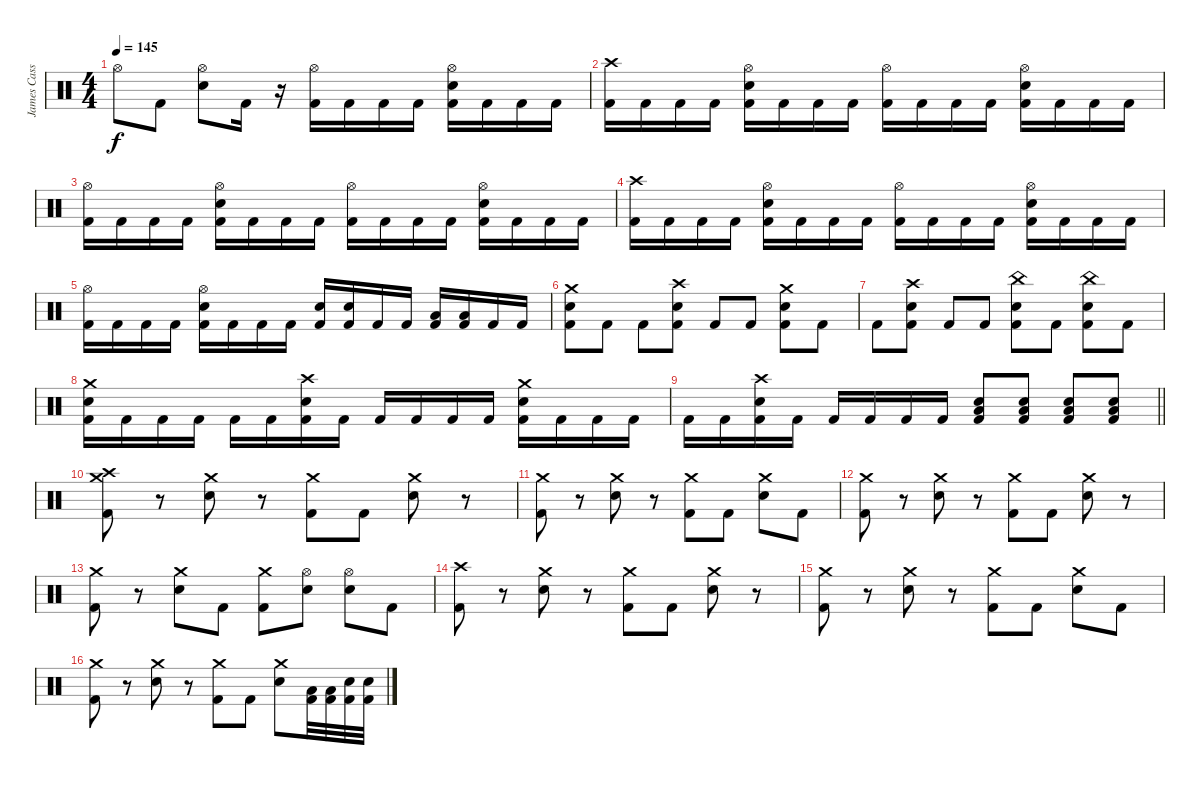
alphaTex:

\track ("James Cassells" "James Cass") {instrument percussion}
\staff {score}
\articulation defaults
\ts (4 4)
\tempo 145
\clef neutral
\ks c "Hi-Hat (open)".8{dy f} "Kick (hit) 2".8
("Hi-Hat (open)" "Electric Snare (hit)").8 "Kick (hit) 2".16 r.16 ("Hi-Hat (open)" "Kick (hit) 2").16 "Kick (hit) 2".16 "Kick (hit) 2".16 "Kick (hit) 2".16 ("Hi-Hat (open)" "Electric Snare (hit)" "Kick (hit) 2").16 "Kick (hit) 2".16 "Kick (hit) 2".16 "Kick (hit) 2".16 |
("Crash high (hit)" "Kick (hit) 2").16 "Kick (hit) 2".16 "Kick (hit) 2".16 "Kick (hit) 2".16 ("Hi-Hat (open)" "Electric Snare (hit)" "Kick (hit) 2").16 "Kick (hit) 2".16 "Kick (hit) 2".16 "Kick (hit) 2".16 ("Hi-Hat (open)" "Kick (hit) 2").16 "Kick (hit) 2".16 "Kick (hit) 2".16 "Kick (hit) 2".16 ("Hi-Hat (open)" "Electric Snare (hit)" "Kick (hit) 2").16 "Kick (hit) 2".16 "Kick (hit) 2".16 "Kick (hit) 2".16 |
("Hi-Hat (open)" "Kick (hit) 2").16 "Kick (hit) 2".16 "Kick (hit) 2".16 "Kick (hit) 2".16 ("Hi-Hat (open)" "Electric Snare (hit)" "Kick (hit) 2").16 "Kick (hit) 2".16 "Kick (hit) 2".16 "Kick (hit) 2".16 ("Hi-Hat (open)" "Kick (hit) 2").16 "Kick (hit) 2".16 "Kick (hit) 2".16 "Kick (hit) 2".16 ("Hi-Hat (open)" "Electric Snare (hit)" "Kick (hit) 2").16 "Kick (hit) 2".16 "Kick (hit) 2".16 "Kick (hit) 2".16 |
("Crash high (hit)" "Kick (hit) 2").16 "Kick (hit) 2".16 "Kick (hit) 2".16 "Kick (hit) 2".16 ("Hi-Hat (open)" "Electric Snare (hit)" "Kick (hit) 2").16 "Kick (hit) 2".16 "Kick (hit) 2".16 "Kick (hit) 2".16 ("Hi-Hat (open)" "Kick (hit) 2").16 "Kick (hit) 2".16 "Kick (hit) 2".16 "Kick (hit) 2".16 ("Hi-Hat (open)" "Electric Snare (hit)" "Kick (hit) 2").16 "Kick (hit) 2".16 "Kick (hit) 2".16 "Kick (hit) 2".16 |
("Hi-Hat (open)" "Kick (hit) 2").16 "Kick (hit) 2".16 "Kick (hit) 2".16 "Kick (hit) 2".16 ("Hi-Hat (open)" "Electric Snare (hit)" "Kick (hit) 2").16 "Kick (hit) 2".16 "Kick (hit) 2".16 "Kick (hit) 2".16 ("Electric Snare (hit)" "Kick (hit) 2").16 ("Electric Snare (hit)" "Kick (hit) 2").16 "Kick (hit) 2".16 "Kick (hit) 2".16 ("Low Floor Tom (hit)" "Kick (hit) 2").16 ("Low Floor Tom (hit)" "Kick (hit) 2").16 "Kick (hit) 2".16 "Kick (hit) 2".16 |
("Crash medium (hit)" "Electric Snare (hit)" "Kick (hit) 2").8 "Kick (hit) 2".8 "Kick (hit) 2".8 ("Crash high (hit)" "Electric Snare (hit)" "Kick (hit) 2").8 "Kick (hit) 2".8 "Kick (hit) 2".8 ("Crash medium (hit)" "Electric Snare (hit)" "Kick (hit) 2").8 "Kick (hit) 2".8 |
"Kick (hit) 2".8 ("Crash high (hit)" "Electric Snare (hit)" "Kick (hit) 2").8 "Kick (hit) 2".8 "Kick (hit) 2".8 ("China (hit)" "Electric Snare (hit)" "Kick (hit) 2").8 "Kick (hit) 2".8 ("China (hit)" "Electric Snare (hit)" "Kick (hit) 2").8 "Kick (hit) 2".8 |
("Crash medium (hit)" "Electric Snare (hit)" "Kick (hit) 2").16 "Kick (hit) 2".16 "Kick (hit) 2".16 "Kick (hit) 2".16 "Kick (hit) 2".16 "Kick (hit) 2".16 ("Crash high (hit)" "Electric Snare (hit)" "Kick (hit) 2").16 "Kick (hit) 2".16 "Kick (hit) 2".16 "Kick (hit) 2".16 "Kick (hit) 2".16 "Kick (hit) 2".16 ("Crash medium (hit)" "Electric Snare (hit)" "Kick (hit) 2").16 "Kick (hit) 2".16 "Kick (hit) 2".16 "Kick (hit) 2".16 |
\barLineRight lightlight "Kick (hit) 2".16 "Kick (hit) 2".16
("Crash high (hit)" "Electric Snare (hit)" "Kick (hit) 2").16 "Kick (hit) 2".16 "Kick (hit) 2".16 "Kick (hit) 2".16 "Kick (hit) 2".16 "Kick (hit) 2".16 ("Low Floor Tom (hit)" "Electric Snare (hit)" "Kick (hit) 2").8 ("Low Floor Tom (hit)" "Electric Snare (hit)" "Kick (hit) 2").8 ("Low Floor Tom (hit)" "Electric Snare (hit)" "Kick (hit) 2").8 ("Low Floor Tom (hit)" "Electric Snare (hit)" "Kick (hit) 2").8 |
("Crash high (hit)" "Crash medium (hit)" "Kick (hit) 2").8 r.8 ("Crash medium (hit)" "Electric Snare (hit)").8 r.8 ("Crash medium (hit)" "Kick (hit) 2").8 "Kick (hit) 2".8 ("Crash medium (hit)" "Electric Snare (hit)").8 r.8 |
("Crash medium (hit)" "Kick (hit) 2").8 r.8 ("Crash medium (hit)" "Electric Snare (hit)").8 r.8 ("Crash medium (hit)" "Kick (hit) 2").8 "Kick (hit) 2".8 ("Crash medium (hit)" "Electric Snare (hit)").8 "Kick (hit) 2".8 |
("Crash medium (hit)" "Kick (hit) 2").8 r.8 ("Crash medium (hit)" "Electric Snare (hit)").8 r.8 ("Crash medium (hit)" "Kick (hit) 2").8 "Kick (hit) 2".8 ("Crash medium (hit)" "Electric Snare (hit)").8 r.8 |
("Crash medium (hit)" "Kick (hit) 2").8 r.8 ("Crash medium (hit)" "Electric Snare (hit)").8 "Kick (hit) 2".8 ("Crash medium (hit)" "Kick (hit) 2").8 ("Hi-Hat (open)" "Electric Snare (hit)").8 ("Hi-Hat (open)" "Electric Snare (hit)").8 "Kick (hit) 2".8 |
("Crash high (hit)" "Kick (hit) 2").8 r.8 ("Crash medium (hit)" "Electric Snare (hit)").8 r.8 ("Crash medium (hit)" "Kick (hit) 2").8 "Kick (hit) 2".8 ("Crash medium (hit)" "Electric Snare (hit)").8 r.8 |
("Crash medium (hit)" "Kick (hit) 2").8 r.8 ("Crash medium (hit)" "Electric Snare (hit)").8 r.8 ("Crash medium (hit)" "Kick (hit) 2").8 "Kick (hit) 2".8 ("Crash medium (hit)" "Electric Snare (hit)").8 "Kick (hit) 2".8 |
("Crash medium (hit)" "Kick (hit) 2").8 r.8 ("Crash medium (hit)" "Electric Snare (hit)").8 r.8 ("Crash medium (hit)" "Kick (hit) 2").8 "Kick (hit) 2".8 ("Crash medium (hit)" "Electric Snare (hit)").8 ("Low Tom (hit)" "Kick (hit) 2").32 ("Low Floor Tom (hit)" "Kick (hit) 2").32 ("Electric Snare (hit)" "Kick (hit) 2").32 ("Electric Snare (hit)" "Kick (hit) 2").32
